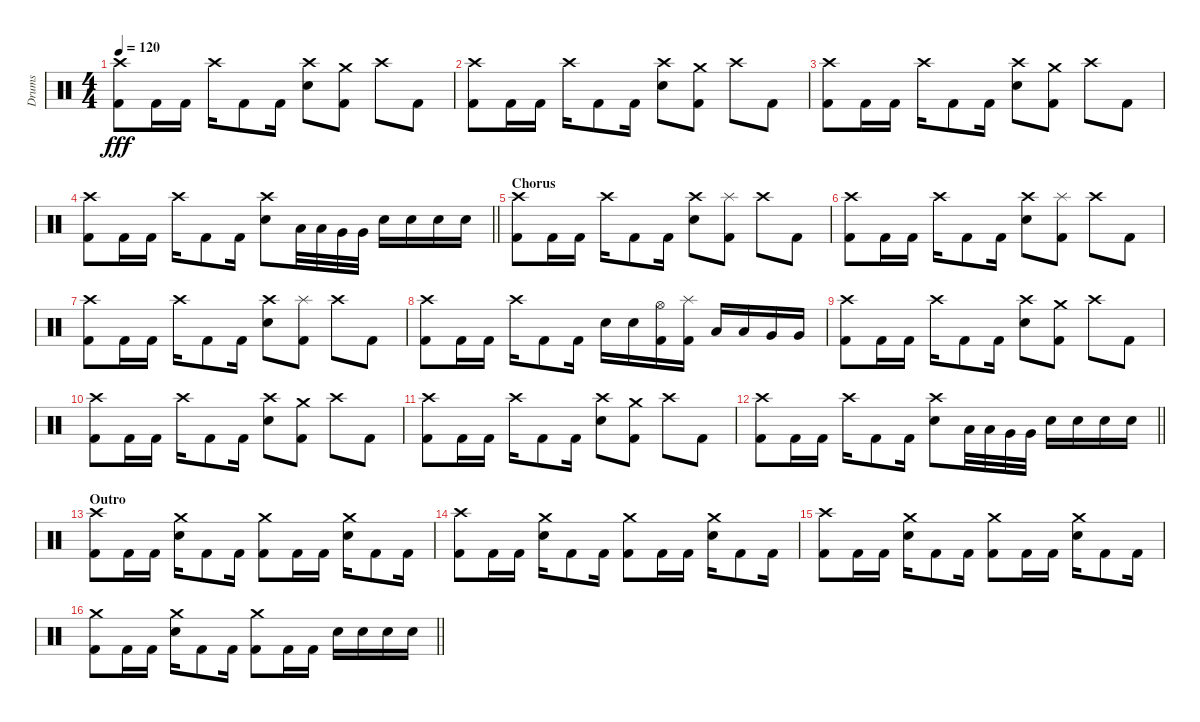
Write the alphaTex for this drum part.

\track ("Drums" "Drums") {instrument percussion}
\staff {score}
\articulation defaults
\ts (4 4)
\tempo 120
\clef neutral
\ks c
("Crash high (hit)" "Kick (hit) 2").8{dy fff} "Kick (hit) 2".16 "Kick (hit) 2".16 "Crash high (hit)".16 "Kick (hit) 2".8 "Kick (hit) 2".16 ("Crash high (hit)" "Electric Snare (hit)").8 ("Crash medium (hit)" "Kick (hit) 2").8 "Crash high (hit)".8 "Kick (hit) 2".8 |
("Crash high (hit)" "Kick (hit) 2").8 "Kick (hit) 2".16 "Kick (hit) 2".16 "Crash high (hit)".16 "Kick (hit) 2".8 "Kick (hit) 2".16 ("Crash high (hit)" "Electric Snare (hit)").8 ("Crash medium (hit)" "Kick (hit) 2").8 "Crash high (hit)".8 "Kick (hit) 2".8 |
("Crash high (hit)" "Kick (hit) 2").8 "Kick (hit) 2".16 "Kick (hit) 2".16 "Crash high (hit)".16 "Kick (hit) 2".8 "Kick (hit) 2".16 ("Crash high (hit)" "Electric Snare (hit)").8 ("Crash medium (hit)" "Kick (hit) 2").8 "Crash high (hit)".8 "Kick (hit) 2".8 |
\barLineRight lightlight
("Crash high (hit)" "Kick (hit) 2").8 "Kick (hit) 2".16 "Kick (hit) 2".16 "Crash high (hit)".16 "Kick (hit) 2".8 "Kick (hit) 2".16 ("Crash high (hit)" "Electric Snare (hit)").8 "Low Tom (hit)".32 "Low Tom (hit)".32 "Very Low Tom (hit)".32 "Very Low Tom (hit)".32 "Electric Snare (hit)".16 "Electric Snare (hit)".16 "Electric Snare (hit)".16 "Electric Snare (hit)".16 |
\section ("" "Chorus")
("Crash high (hit)" "Kick (hit) 2").8 "Kick (hit) 2".16 "Kick (hit) 2".16 "Crash high (hit)".16 "Kick (hit) 2".8 "Kick (hit) 2".16 ("Crash high (hit)" "Electric Snare (hit)").8 ("Splash (hit)" "Kick (hit) 2").8 "Crash high (hit)".8 "Kick (hit) 2".8 |
("Crash high (hit)" "Kick (hit) 2").8 "Kick (hit) 2".16 "Kick (hit) 2".16 "Crash high (hit)".16 "Kick (hit) 2".8 "Kick (hit) 2".16 ("Crash high (hit)" "Electric Snare (hit)").8 ("Splash (hit)" "Kick (hit) 2").8 "Crash high (hit)".8 "Kick (hit) 2".8 |
("Crash high (hit)" "Kick (hit) 2").8 "Kick (hit) 2".16 "Kick (hit) 2".16 "Crash high (hit)".16 "Kick (hit) 2".8 "Kick (hit) 2".16 ("Crash high (hit)" "Electric Snare (hit)").8 ("Splash (hit)" "Kick (hit) 2").8 "Crash high (hit)".8 "Kick (hit) 2".8 |
("Crash high (hit)" "Kick (hit) 2").8 "Kick (hit) 2".16 "Kick (hit) 2".16 "Crash high (hit)".16 "Kick (hit) 2".8 "Kick (hit) 2".16 "Electric Snare (hit)".16 "Electric Snare (hit)".16 ("Hi-Hat (open)" "Kick (hit) 2").16 ("Splash (hit)" "Kick (hit) 2").16 "Low Tom (hit)".16 "Low Tom (hit)".16 "Very Low Tom (hit)".16 "Very Low Tom (hit)".16 |
("Crash high (hit)" "Kick (hit) 2").8 "Kick (hit) 2".16 "Kick (hit) 2".16 "Crash high (hit)".16 "Kick (hit) 2".8 "Kick (hit) 2".16 ("Crash high (hit)" "Electric Snare (hit)").8 ("Crash medium (hit)" "Kick (hit) 2").8 "Crash high (hit)".8 "Kick (hit) 2".8 |
("Crash high (hit)" "Kick (hit) 2").8 "Kick (hit) 2".16 "Kick (hit) 2".16 "Crash high (hit)".16 "Kick (hit) 2".8 "Kick (hit) 2".16 ("Crash high (hit)" "Electric Snare (hit)").8 ("Crash medium (hit)" "Kick (hit) 2").8 "Crash high (hit)".8 "Kick (hit) 2".8 |
("Crash high (hit)" "Kick (hit) 2").8 "Kick (hit) 2".16 "Kick (hit) 2".16 "Crash high (hit)".16 "Kick (hit) 2".8 "Kick (hit) 2".16 ("Crash high (hit)" "Electric Snare (hit)").8 ("Crash medium (hit)" "Kick (hit) 2").8 "Crash high (hit)".8 "Kick (hit) 2".8 |
\barLineRight lightlight
("Crash high (hit)" "Kick (hit) 2").8 "Kick (hit) 2".16 "Kick (hit) 2".16 "Crash high (hit)".16 "Kick (hit) 2".8 "Kick (hit) 2".16 ("Crash high (hit)" "Electric Snare (hit)").8 "Low Tom (hit)".32 "Low Tom (hit)".32 "Very Low Tom (hit)".32 "Very Low Tom (hit)".32 "Electric Snare (hit)".16 "Electric Snare (hit)".16 "Electric Snare (hit)".16 "Electric Snare (hit)".16 |
\section ("" "Outro")
("Crash high (hit)" "Kick (hit) 2").8 "Kick (hit) 2".16 "Kick (hit) 2".16 ("Crash medium (hit)" "Electric Snare (hit)").16 "Kick (hit) 2".8 "Kick (hit) 2".16 ("Crash medium (hit)" "Kick (hit) 2").8 "Kick (hit) 2".16 "Kick (hit) 2".16 ("Crash medium (hit)" "Electric Snare (hit)").16 "Kick (hit) 2".8 "Kick (hit) 2".16 |
("Crash high (hit)" "Kick (hit) 2").8 "Kick (hit) 2".16 "Kick (hit) 2".16 ("Crash medium (hit)" "Electric Snare (hit)").16 "Kick (hit) 2".8 "Kick (hit) 2".16 ("Crash medium (hit)" "Kick (hit) 2").8 "Kick (hit) 2".16 "Kick (hit) 2".16 ("Crash medium (hit)" "Electric Snare (hit)").16 "Kick (hit) 2".8 "Kick (hit) 2".16 |
("Crash high (hit)" "Kick (hit) 2").8 "Kick (hit) 2".16 "Kick (hit) 2".16 ("Crash medium (hit)" "Electric Snare (hit)").16 "Kick (hit) 2".8 "Kick (hit) 2".16 ("Crash medium (hit)" "Kick (hit) 2").8 "Kick (hit) 2".16 "Kick (hit) 2".16 ("Crash medium (hit)" "Electric Snare (hit)").16 "Kick (hit) 2".8 "Kick (hit) 2".16 |
\barLineRight lightlight
("Crash medium (hit)" "Kick (hit) 2").8 "Kick (hit) 2".16 "Kick (hit) 2".16 ("Crash medium (hit)" "Electric Snare (hit)").16 "Kick (hit) 2".8 "Kick (hit) 2".16 ("Crash medium (hit)" "Kick (hit) 2").8 "Kick (hit) 2".16 "Kick (hit) 2".16 "Electric Snare (hit)".16 "Electric Snare (hit)".16 "Electric Snare (hit)".16 "Electric Snare (hit)".16
